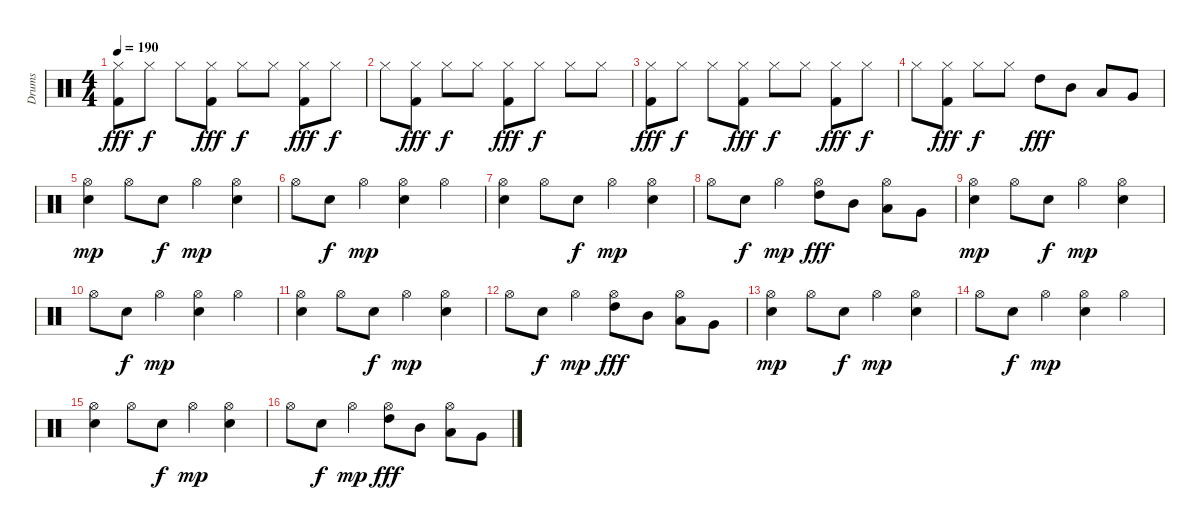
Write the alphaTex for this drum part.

\track ("Drums" "Drums") {instrument percussion}
\staff {score}
\articulation defaults
\ts (4 4)
\tempo 190
\clef neutral
\ks c
("Hi-Hat (closed)" "Kick (hit) 2").8{dy fff} "Hi-Hat (closed)".8{dy f} "Hi-Hat (closed)".8 ("Hi-Hat (closed)" "Kick (hit) 2").8{dy fff} "Hi-Hat (closed)".8{dy f} "Hi-Hat (closed)".8 ("Hi-Hat (closed)" "Kick (hit) 2").8{dy fff} "Hi-Hat (closed)".8{dy f} |
"Hi-Hat (closed)".8 ("Hi-Hat (closed)" "Kick (hit) 2").8{dy fff} "Hi-Hat (closed)".8{dy f} "Hi-Hat (closed)".8 ("Hi-Hat (closed)" "Kick (hit) 2").8{dy fff} "Hi-Hat (closed)".8{dy f} "Hi-Hat (closed)".8 "Hi-Hat (closed)".8 |
("Hi-Hat (closed)" "Kick (hit) 2").8{dy fff} "Hi-Hat (closed)".8{dy f} "Hi-Hat (closed)".8 ("Hi-Hat (closed)" "Kick (hit) 2").8{dy fff} "Hi-Hat (closed)".8{dy f} "Hi-Hat (closed)".8 ("Hi-Hat (closed)" "Kick (hit) 2").8{dy fff} "Hi-Hat (closed)".8{dy f} |
"Hi-Hat (closed)".8 ("Hi-Hat (closed)" "Kick (hit) 2").8{dy fff} "Hi-Hat (closed)".8{dy f} "Hi-Hat (closed)".8 "High Tom (hit)".8{dy fff} "Mid Tom (hit)".8 "Low Tom (hit)".8 "Very Low Tom (hit)".8 |
("Hi-Hat (open)" "Snare (hit) 2").4{dy mp} "Hi-Hat (open)".8 "Snare (hit) 2".8{dy f} "Hi-Hat (open)".4{dy mp} ("Hi-Hat (open)" "Snare (hit) 2").4 |
"Hi-Hat (open)".8 "Snare (hit) 2".8{dy f} "Hi-Hat (open)".4{dy mp} ("Hi-Hat (open)" "Snare (hit) 2").4 "Hi-Hat (open)".4 |
("Hi-Hat (open)" "Snare (hit) 2").4 "Hi-Hat (open)".8 "Snare (hit) 2".8{dy f} "Hi-Hat (open)".4{dy mp} ("Hi-Hat (open)" "Snare (hit) 2").4 |
"Hi-Hat (open)".8 "Snare (hit) 2".8{dy f} "Hi-Hat (open)".4{dy mp} ("Hi-Hat (open)" "High Tom (hit)").8{dy fff} "Mid Tom (hit)".8 ("Hi-Hat (open)" "Low Tom (hit)").8 "Very Low Tom (hit)".8 |
("Hi-Hat (open)" "Snare (hit) 2").4{dy mp} "Hi-Hat (open)".8 "Snare (hit) 2".8{dy f} "Hi-Hat (open)".4{dy mp} ("Hi-Hat (open)" "Snare (hit) 2").4 |
"Hi-Hat (open)".8 "Snare (hit) 2".8{dy f} "Hi-Hat (open)".4{dy mp} ("Hi-Hat (open)" "Snare (hit) 2").4 "Hi-Hat (open)".4 |
("Hi-Hat (open)" "Snare (hit) 2").4 "Hi-Hat (open)".8 "Snare (hit) 2".8{dy f} "Hi-Hat (open)".4{dy mp} ("Hi-Hat (open)" "Snare (hit) 2").4 |
"Hi-Hat (open)".8 "Snare (hit) 2".8{dy f} "Hi-Hat (open)".4{dy mp} ("Hi-Hat (open)" "High Tom (hit)").8{dy fff} "Mid Tom (hit)".8 ("Hi-Hat (open)" "Low Tom (hit)").8 "Very Low Tom (hit)".8 |
("Hi-Hat (open)" "Snare (hit) 2").4{dy mp} "Hi-Hat (open)".8 "Snare (hit) 2".8{dy f} "Hi-Hat (open)".4{dy mp} ("Hi-Hat (open)" "Snare (hit) 2").4 |
"Hi-Hat (open)".8 "Snare (hit) 2".8{dy f} "Hi-Hat (open)".4{dy mp} ("Hi-Hat (open)" "Snare (hit) 2").4 "Hi-Hat (open)".4 |
("Hi-Hat (open)" "Snare (hit) 2").4 "Hi-Hat (open)".8 "Snare (hit) 2".8{dy f} "Hi-Hat (open)".4{dy mp} ("Hi-Hat (open)" "Snare (hit) 2").4 |
"Hi-Hat (open)".8 "Snare (hit) 2".8{dy f} "Hi-Hat (open)".4{dy mp} ("Hi-Hat (open)" "High Tom (hit)").8{dy fff} "Mid Tom (hit)".8 ("Hi-Hat (open)" "Low Tom (hit)").8 "Very Low Tom (hit)".8
